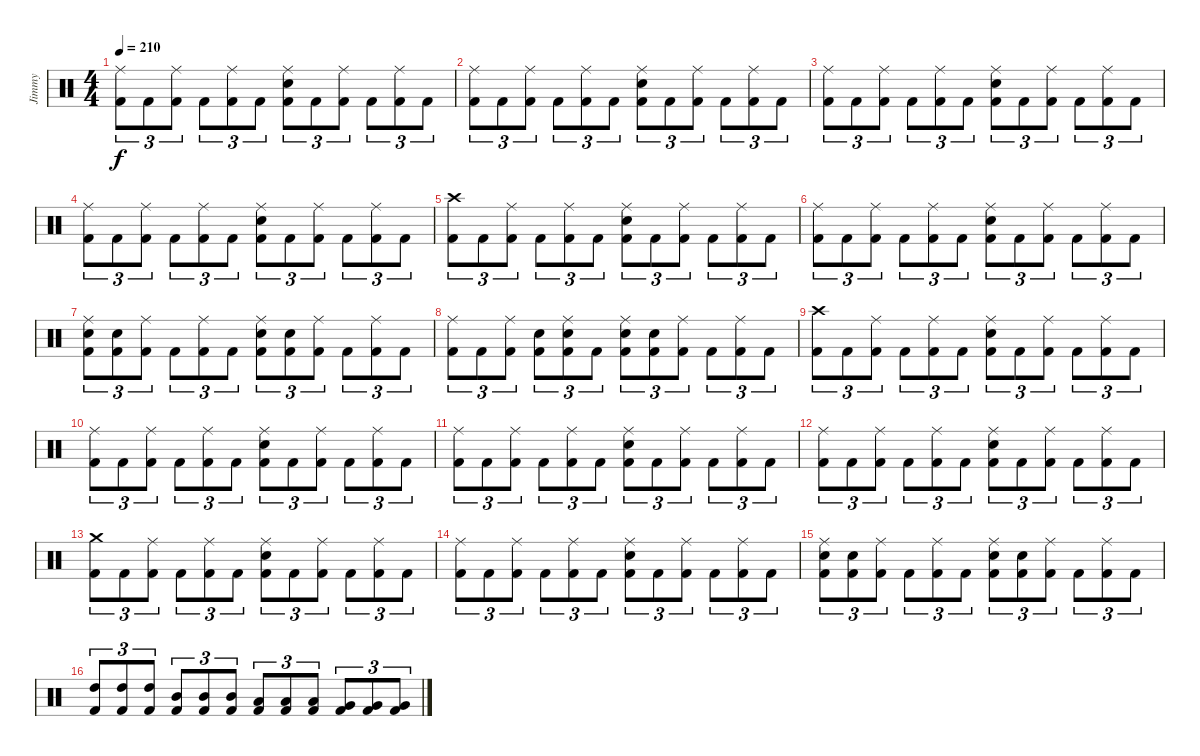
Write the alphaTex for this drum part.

\track ("Jimmy" "Jimmy") {instrument percussion}
\staff {score}
\articulation defaults
\ts (4 4)
\tempo 210
\clef neutral
\ks c
("Ride (middle)" "Kick (hit) 2").8{tu (3 2) dy f} "Kick (hit) 2".8{tu (3 2)} ("Ride (middle)" "Kick (hit) 2").8{tu (3 2)} "Kick (hit) 2".8{tu (3 2)} ("Ride (middle)" "Kick (hit) 2").8{tu (3 2)} "Kick (hit) 2".8{tu (3 2)} ("Ride (middle)" "Electric Snare (hit)" "Kick (hit) 2").8{tu (3 2)} "Kick (hit) 2".8{tu (3 2)} ("Ride (middle)" "Kick (hit) 2").8{tu (3 2)} "Kick (hit) 2".8{tu (3 2)} ("Ride (middle)" "Kick (hit) 2").8{tu (3 2)} "Kick (hit) 2".8{tu (3 2)} |
("Ride (middle)" "Kick (hit) 2").8{tu (3 2)} "Kick (hit) 2".8{tu (3 2)} ("Ride (middle)" "Kick (hit) 2").8{tu (3 2)} "Kick (hit) 2".8{tu (3 2)} ("Ride (middle)" "Kick (hit) 2").8{tu (3 2)} "Kick (hit) 2".8{tu (3 2)} ("Ride (middle)" "Electric Snare (hit)" "Kick (hit) 2").8{tu (3 2)} "Kick (hit) 2".8{tu (3 2)} ("Ride (middle)" "Kick (hit) 2").8{tu (3 2)} "Kick (hit) 2".8{tu (3 2)} ("Ride (middle)" "Kick (hit) 2").8{tu (3 2)} "Kick (hit) 2".8{tu (3 2)} |
("Ride (middle)" "Kick (hit) 2").8{tu (3 2)} "Kick (hit) 2".8{tu (3 2)} ("Ride (middle)" "Kick (hit) 2").8{tu (3 2)} "Kick (hit) 2".8{tu (3 2)} ("Ride (middle)" "Kick (hit) 2").8{tu (3 2)} "Kick (hit) 2".8{tu (3 2)} ("Ride (middle)" "Electric Snare (hit)" "Kick (hit) 2").8{tu (3 2)} "Kick (hit) 2".8{tu (3 2)} ("Ride (middle)" "Kick (hit) 2").8{tu (3 2)} "Kick (hit) 2".8{tu (3 2)} ("Ride (middle)" "Kick (hit) 2").8{tu (3 2)} "Kick (hit) 2".8{tu (3 2)} |
("Ride (middle)" "Kick (hit) 2").8{tu (3 2)} "Kick (hit) 2".8{tu (3 2)} ("Ride (middle)" "Kick (hit) 2").8{tu (3 2)} "Kick (hit) 2".8{tu (3 2)} ("Ride (middle)" "Kick (hit) 2").8{tu (3 2)} "Kick (hit) 2".8{tu (3 2)} ("Ride (middle)" "Electric Snare (hit)" "Kick (hit) 2").8{tu (3 2)} "Kick (hit) 2".8{tu (3 2)} ("Ride (middle)" "Kick (hit) 2").8{tu (3 2)} "Kick (hit) 2".8{tu (3 2)} ("Ride (middle)" "Kick (hit) 2").8{tu (3 2)} "Kick (hit) 2".8{tu (3 2)} |
("Crash high (hit)" "Kick (hit) 2").8{tu (3 2)} "Kick (hit) 2".8{tu (3 2)} ("Ride (middle)" "Kick (hit) 2").8{tu (3 2)} "Kick (hit) 2".8{tu (3 2)} ("Ride (middle)" "Kick (hit) 2").8{tu (3 2)} "Kick (hit) 2".8{tu (3 2)} ("Ride (middle)" "Electric Snare (hit)" "Kick (hit) 2").8{tu (3 2)} "Kick (hit) 2".8{tu (3 2)} ("Ride (middle)" "Kick (hit) 2").8{tu (3 2)} "Kick (hit) 2".8{tu (3 2)} ("Ride (middle)" "Kick (hit) 2").8{tu (3 2)} "Kick (hit) 2".8{tu (3 2)} |
("Ride (middle)" "Kick (hit) 2").8{tu (3 2)} "Kick (hit) 2".8{tu (3 2)} ("Ride (middle)" "Kick (hit) 2").8{tu (3 2)} "Kick (hit) 2".8{tu (3 2)} ("Ride (middle)" "Kick (hit) 2").8{tu (3 2)} "Kick (hit) 2".8{tu (3 2)} ("Ride (middle)" "Electric Snare (hit)" "Kick (hit) 2").8{tu (3 2)} "Kick (hit) 2".8{tu (3 2)} ("Ride (middle)" "Kick (hit) 2").8{tu (3 2)} "Kick (hit) 2".8{tu (3 2)} ("Ride (middle)" "Kick (hit) 2").8{tu (3 2)} "Kick (hit) 2".8{tu (3 2)} |
("Ride (middle)" "Electric Snare (hit)" "Kick (hit) 2").8{tu (3 2)} ("Electric Snare (hit)" "Kick (hit) 2").8{tu (3 2)} ("Ride (middle)" "Kick (hit) 2").8{tu (3 2)} "Kick (hit) 2".8{tu (3 2)} ("Ride (middle)" "Kick (hit) 2").8{tu (3 2)} "Kick (hit) 2".8{tu (3 2)} ("Ride (middle)" "Electric Snare (hit)" "Kick (hit) 2").8{tu (3 2)} ("Electric Snare (hit)" "Kick (hit) 2").8{tu (3 2)} ("Ride (middle)" "Kick (hit) 2").8{tu (3 2)} "Kick (hit) 2".8{tu (3 2)} ("Ride (middle)" "Kick (hit) 2").8{tu (3 2)} "Kick (hit) 2".8{tu (3 2)} |
("Ride (middle)" "Kick (hit) 2").8{tu (3 2)} "Kick (hit) 2".8{tu (3 2)} ("Ride (middle)" "Kick (hit) 2").8{tu (3 2)} ("Electric Snare (hit)" "Kick (hit) 2").8{tu (3 2)} ("Ride (middle)" "Electric Snare (hit)" "Kick (hit) 2").8{tu (3 2)} "Kick (hit) 2".8{tu (3 2)} ("Ride (middle)" "Electric Snare (hit)" "Kick (hit) 2").8{tu (3 2)} ("Electric Snare (hit)" "Kick (hit) 2").8{tu (3 2)} ("Ride (middle)" "Kick (hit) 2").8{tu (3 2)} "Kick (hit) 2".8{tu (3 2)} ("Ride (middle)" "Kick (hit) 2").8{tu (3 2)} "Kick (hit) 2".8{tu (3 2)} |
("Crash high (hit)" "Kick (hit) 2").8{tu (3 2)} "Kick (hit) 2".8{tu (3 2)} ("Ride (middle)" "Kick (hit) 2").8{tu (3 2)} "Kick (hit) 2".8{tu (3 2)} ("Ride (middle)" "Kick (hit) 2").8{tu (3 2)} "Kick (hit) 2".8{tu (3 2)} ("Ride (middle)" "Electric Snare (hit)" "Kick (hit) 2").8{tu (3 2)} "Kick (hit) 2".8{tu (3 2)} ("Ride (middle)" "Kick (hit) 2").8{tu (3 2)} "Kick (hit) 2".8{tu (3 2)} ("Ride (middle)" "Kick (hit) 2").8{tu (3 2)} "Kick (hit) 2".8{tu (3 2)} |
("Ride (middle)" "Kick (hit) 2").8{tu (3 2)} "Kick (hit) 2".8{tu (3 2)} ("Ride (middle)" "Kick (hit) 2").8{tu (3 2)} "Kick (hit) 2".8{tu (3 2)} ("Ride (middle)" "Kick (hit) 2").8{tu (3 2)} "Kick (hit) 2".8{tu (3 2)} ("Ride (middle)" "Electric Snare (hit)" "Kick (hit) 2").8{tu (3 2)} "Kick (hit) 2".8{tu (3 2)} ("Ride (middle)" "Kick (hit) 2").8{tu (3 2)} "Kick (hit) 2".8{tu (3 2)} ("Ride (middle)" "Kick (hit) 2").8{tu (3 2)} "Kick (hit) 2".8{tu (3 2)} |
("Ride (middle)" "Kick (hit) 2").8{tu (3 2)} "Kick (hit) 2".8{tu (3 2)} ("Ride (middle)" "Kick (hit) 2").8{tu (3 2)} "Kick (hit) 2".8{tu (3 2)} ("Ride (middle)" "Kick (hit) 2").8{tu (3 2)} "Kick (hit) 2".8{tu (3 2)} ("Ride (middle)" "Electric Snare (hit)" "Kick (hit) 2").8{tu (3 2)} "Kick (hit) 2".8{tu (3 2)} ("Ride (middle)" "Kick (hit) 2").8{tu (3 2)} "Kick (hit) 2".8{tu (3 2)} ("Ride (middle)" "Kick (hit) 2").8{tu (3 2)} "Kick (hit) 2".8{tu (3 2)} |
("Ride (middle)" "Kick (hit) 2").8{tu (3 2)} "Kick (hit) 2".8{tu (3 2)} ("Ride (middle)" "Kick (hit) 2").8{tu (3 2)} "Kick (hit) 2".8{tu (3 2)} ("Ride (middle)" "Kick (hit) 2").8{tu (3 2)} "Kick (hit) 2".8{tu (3 2)} ("Ride (middle)" "Electric Snare (hit)" "Kick (hit) 2").8{tu (3 2)} "Kick (hit) 2".8{tu (3 2)} ("Ride (middle)" "Kick (hit) 2").8{tu (3 2)} "Kick (hit) 2".8{tu (3 2)} ("Ride (middle)" "Kick (hit) 2").8{tu (3 2)} "Kick (hit) 2".8{tu (3 2)} |
("Crash medium (hit)" "Kick (hit) 2").8{tu (3 2)} "Kick (hit) 2".8{tu (3 2)} ("Ride (middle)" "Kick (hit) 2").8{tu (3 2)} "Kick (hit) 2".8{tu (3 2)} ("Ride (middle)" "Kick (hit) 2").8{tu (3 2)} "Kick (hit) 2".8{tu (3 2)} ("Ride (middle)" "Electric Snare (hit)" "Kick (hit) 2").8{tu (3 2)} "Kick (hit) 2".8{tu (3 2)} ("Ride (middle)" "Kick (hit) 2").8{tu (3 2)} "Kick (hit) 2".8{tu (3 2)} ("Ride (middle)" "Kick (hit) 2").8{tu (3 2)} "Kick (hit) 2".8{tu (3 2)} |
("Ride (middle)" "Kick (hit) 2").8{tu (3 2)} "Kick (hit) 2".8{tu (3 2)} ("Ride (middle)" "Kick (hit) 2").8{tu (3 2)} "Kick (hit) 2".8{tu (3 2)} ("Ride (middle)" "Kick (hit) 2").8{tu (3 2)} "Kick (hit) 2".8{tu (3 2)} ("Ride (middle)" "Electric Snare (hit)" "Kick (hit) 2").8{tu (3 2)} "Kick (hit) 2".8{tu (3 2)} ("Ride (middle)" "Kick (hit) 2").8{tu (3 2)} "Kick (hit) 2".8{tu (3 2)} ("Ride (middle)" "Kick (hit) 2").8{tu (3 2)} "Kick (hit) 2".8{tu (3 2)} |
("Ride (middle)" "Electric Snare (hit)" "Kick (hit) 2").8{tu (3 2)} ("Electric Snare (hit)" "Kick (hit) 2").8{tu (3 2)} ("Ride (middle)" "Kick (hit) 2").8{tu (3 2)} "Kick (hit) 2".8{tu (3 2)} ("Ride (middle)" "Kick (hit) 2").8{tu (3 2)} "Kick (hit) 2".8{tu (3 2)} ("Ride (middle)" "Electric Snare (hit)" "Kick (hit) 2").8{tu (3 2)} ("Electric Snare (hit)" "Kick (hit) 2").8{tu (3 2)} ("Ride (middle)" "Kick (hit) 2").8{tu (3 2)} "Kick (hit) 2".8{tu (3 2)} ("Ride (middle)" "Kick (hit) 2").8{tu (3 2)} "Kick (hit) 2".8{tu (3 2)} |
("High Tom (hit)" "Kick (hit) 2").8{tu (3 2)} ("High Tom (hit)" "Kick (hit) 2").8{tu (3 2)} ("High Tom (hit)" "Kick (hit) 2").8{tu (3 2)} ("Mid Tom (hit)" "Kick (hit) 2").8{tu (3 2)} ("Mid Tom (hit)" "Kick (hit) 2").8{tu (3 2)} ("Mid Tom (hit)" "Kick (hit) 2").8{tu (3 2)} ("Low Tom (hit)" "Kick (hit) 2").8{tu (3 2)} ("Low Tom (hit)" "Kick (hit) 2").8{tu (3 2)} ("Low Tom (hit)" "Kick (hit) 2").8{tu (3 2)} ("Very Low Tom (hit)" "Kick (hit) 2").8{tu (3 2)} ("Very Low Tom (hit)" "Kick (hit) 2").8{tu (3 2)} ("Very Low Tom (hit)" "Kick (hit) 2").8{tu (3 2)}
